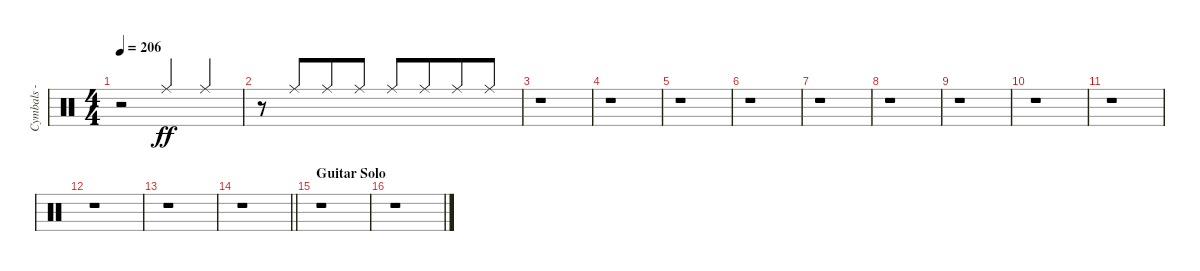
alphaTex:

\track ("Cymbals - ride" "Cymbals - ") {instrument percussion}
\staff {score}
\articulation defaults
\ts (4 4)
\tempo 206
\clef neutral
\ks c
r.2{dy ff} "Ride (middle)".4{beam Up} "Ride (middle)".4{beam Up} |
r.8 "Ride (middle)".8{beam Up beam merge} "Ride (middle)".8{beam Up} "Ride (middle)".8{beam Up beam split} "Ride (middle)".8{beam Up} "Ride (middle)".8{beam Up beam merge} "Ride (middle)".8{beam Up} "Ride (middle)".8{beam Up} |
r.1 |
r.1 |
r.1 |
r.1 |
r.1 |
r.1 |
r.1 |
r.1 |
r.1 |
r.1 |
r.1 |
\barLineRight lightlight
r.1 |
\section ("" "Guitar Solo")
r.1 |
r.1
